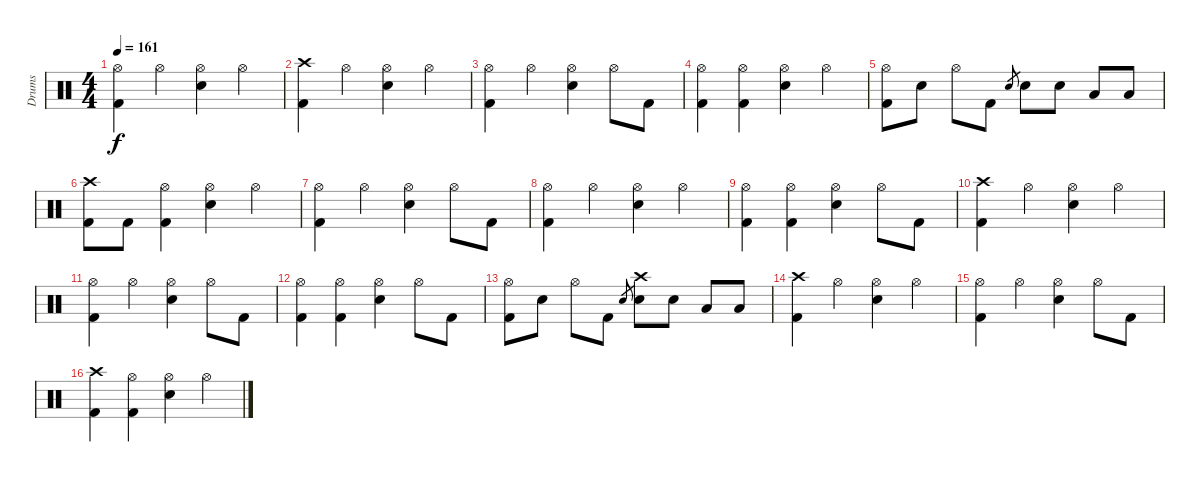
\track ("Drums" "Drums") {instrument percussion}
\staff {score}
\articulation defaults
\ts (4 4)
\tempo 161
\clef neutral
\ks c
("Hi-Hat (open)" "Kick (hit) 2").4{dy f} "Hi-Hat (open)".4 ("Hi-Hat (open)" "Snare (hit) 2").4 "Hi-Hat (open)".4 |
("Crash high (hit)" "Kick (hit) 2").4 "Hi-Hat (open)".4 ("Hi-Hat (open)" "Snare (hit) 2").4 "Hi-Hat (open)".4 |
("Hi-Hat (open)" "Kick (hit) 2").4 "Hi-Hat (open)".4 ("Hi-Hat (open)" "Snare (hit) 2").4 "Hi-Hat (open)".8 "Kick (hit) 2".8 |
("Hi-Hat (open)" "Kick (hit) 2").4 ("Hi-Hat (open)" "Kick (hit) 2").4 ("Hi-Hat (open)" "Snare (hit) 2").4 "Hi-Hat (open)".4 |
("Hi-Hat (open)" "Kick (hit) 2").8 "Snare (hit) 2".8 "Hi-Hat (open)".8 "Kick (hit) 2".8 "Snare (hit) 2".8{gr} "Snare (hit) 2".8 "Snare (hit) 2".8 "Low Tom (hit)".8 "Low Tom (hit)".8 |
("Crash high (hit)" "Kick (hit) 2").8 "Kick (hit) 2".8 ("Hi-Hat (open)" "Kick (hit) 2").4 ("Hi-Hat (open)" "Snare (hit) 2").4 "Hi-Hat (open)".4 |
("Hi-Hat (open)" "Kick (hit) 2").4 "Hi-Hat (open)".4 ("Hi-Hat (open)" "Snare (hit) 2").4 "Hi-Hat (open)".8 "Kick (hit) 2".8 |
("Hi-Hat (open)" "Kick (hit) 2").4 "Hi-Hat (open)".4 ("Hi-Hat (open)" "Snare (hit) 2").4 "Hi-Hat (open)".4 |
("Hi-Hat (open)" "Kick (hit) 2").4 ("Hi-Hat (open)" "Kick (hit) 2").4 ("Hi-Hat (open)" "Snare (hit) 2").4 "Hi-Hat (open)".8 "Kick (hit) 2".8 |
("Crash high (hit)" "Kick (hit) 2").4 "Hi-Hat (open)".4 ("Hi-Hat (open)" "Snare (hit) 2").4 "Hi-Hat (open)".4 |
("Hi-Hat (open)" "Kick (hit) 2").4 "Hi-Hat (open)".4 ("Hi-Hat (open)" "Snare (hit) 2").4 "Hi-Hat (open)".8 "Kick (hit) 2".8 |
("Hi-Hat (open)" "Kick (hit) 2").4 ("Hi-Hat (open)" "Kick (hit) 2").4 ("Hi-Hat (open)" "Snare (hit) 2").4 "Hi-Hat (open)".8 "Kick (hit) 2".8 |
("Hi-Hat (open)" "Kick (hit) 2").8 "Snare (hit) 2".8 "Hi-Hat (open)".8 "Kick (hit) 2".8 "Snare (hit) 2".8{gr} ("Crash high (hit)" "Snare (hit) 2").8 "Snare (hit) 2".8 "Low Tom (hit)".8 "Low Tom (hit)".8 |
("Crash high (hit)" "Kick (hit) 2").4 "Hi-Hat (open)".4 ("Hi-Hat (open)" "Snare (hit) 2").4 "Hi-Hat (open)".4 |
("Hi-Hat (open)" "Kick (hit) 2").4 "Hi-Hat (open)".4 ("Hi-Hat (open)" "Snare (hit) 2").4 "Hi-Hat (open)".8 "Kick (hit) 2".8 |
("Crash high (hit)" "Kick (hit) 2").4 ("Hi-Hat (open)" "Kick (hit) 2").4 ("Hi-Hat (open)" "Snare (hit) 2").4 "Hi-Hat (open)".4
